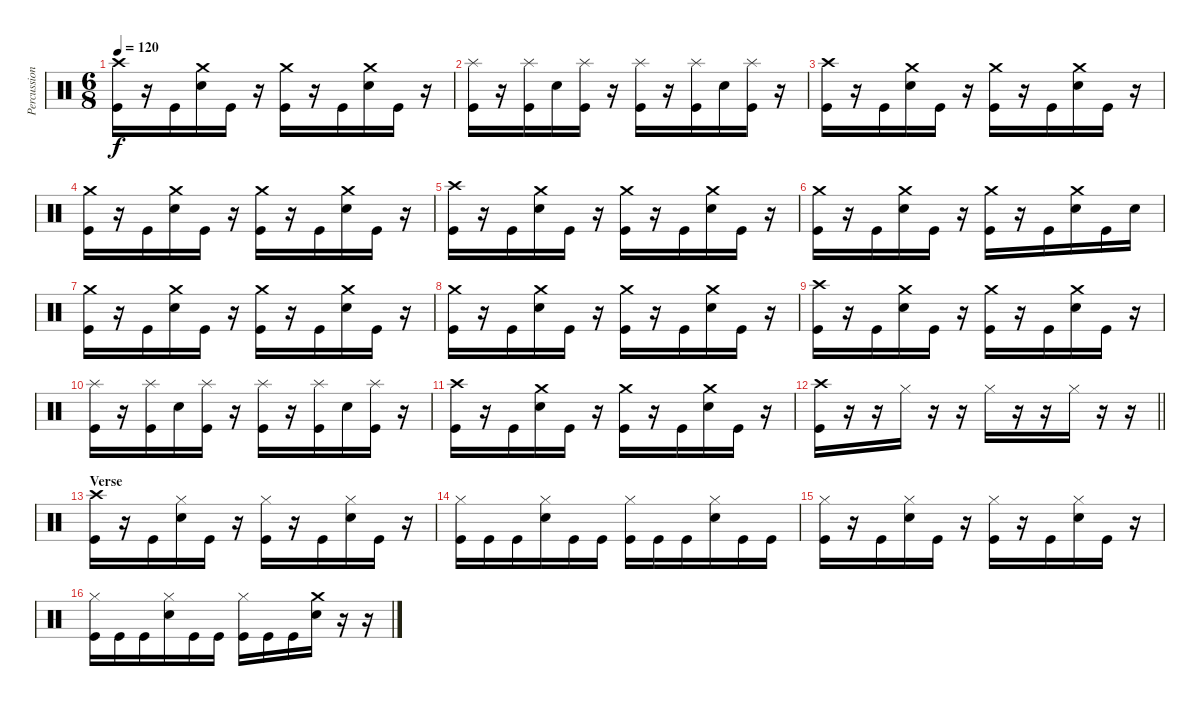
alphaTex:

\track ("Percussion" "Percussion") {instrument percussion}
\staff {score}
\articulation defaults
\ts (6 8)
\tempo 120
\clef neutral
\ks c
("Crash high (hit)" "Kick (hit)").16{dy f} r.16 "Kick (hit)".16 ("Crash medium (hit)" "Snare (hit) 2").16 "Kick (hit)".16 r.16 ("Crash medium (hit)" "Kick (hit)").16 r.16 "Kick (hit)".16 ("Crash medium (hit)" "Snare (hit) 2").16 "Kick (hit)".16 r.16 |
("Splash (hit)" "Kick (hit)").16 r.16 ("Splash (hit)" "Kick (hit)").16 "Snare (hit) 2".16 ("Splash (hit)" "Kick (hit)").16 r.16 ("Splash (hit)" "Kick (hit)").16 r.16 ("Splash (hit)" "Kick (hit)").16 "Snare (hit) 2".16 ("Splash (hit)" "Kick (hit)").16 r.16 |
("Crash high (hit)" "Kick (hit)").16 r.16 "Kick (hit)".16 ("Crash medium (hit)" "Snare (hit) 2").16 "Kick (hit)".16 r.16 ("Crash medium (hit)" "Kick (hit)").16 r.16 "Kick (hit)".16 ("Crash medium (hit)" "Snare (hit) 2").16 "Kick (hit)".16 r.16 |
("Crash medium (hit)" "Kick (hit)").16 r.16 "Kick (hit)".16 ("Crash medium (hit)" "Snare (hit) 2").16 "Kick (hit)".16 r.16 ("Crash medium (hit)" "Kick (hit)").16 r.16 "Kick (hit)".16 ("Crash medium (hit)" "Snare (hit) 2").16 "Kick (hit)".16 r.16 |
("Crash high (hit)" "Kick (hit)").16 r.16 "Kick (hit)".16 ("Crash medium (hit)" "Snare (hit) 2").16 "Kick (hit)".16 r.16 ("Crash medium (hit)" "Kick (hit)").16 r.16 "Kick (hit)".16 ("Crash medium (hit)" "Snare (hit) 2").16 "Kick (hit)".16 r.16 |
("Crash medium (hit)" "Kick (hit)").16 r.16 "Kick (hit)".16 ("Crash medium (hit)" "Snare (hit) 2").16 "Kick (hit)".16 r.16 ("Crash medium (hit)" "Kick (hit)").16 r.16 "Kick (hit)".16 ("Crash medium (hit)" "Snare (hit) 2").16 "Kick (hit)".16 "Snare (hit) 2".16 |
("Crash medium (hit)" "Kick (hit)").16 r.16 "Kick (hit)".16 ("Crash medium (hit)" "Snare (hit) 2").16 "Kick (hit)".16 r.16 ("Crash medium (hit)" "Kick (hit)").16 r.16 "Kick (hit)".16 ("Crash medium (hit)" "Snare (hit) 2").16 "Kick (hit)".16 r.16 |
("Crash medium (hit)" "Kick (hit)").16 r.16 "Kick (hit)".16 ("Crash medium (hit)" "Snare (hit) 2").16 "Kick (hit)".16 r.16 ("Crash medium (hit)" "Kick (hit)").16 r.16 "Kick (hit)".16 ("Crash medium (hit)" "Snare (hit) 2").16 "Kick (hit)".16 r.16 |
("Crash high (hit)" "Kick (hit)").16 r.16 "Kick (hit)".16 ("Crash medium (hit)" "Snare (hit) 2").16 "Kick (hit)".16 r.16 ("Crash medium (hit)" "Kick (hit)").16 r.16 "Kick (hit)".16 ("Crash medium (hit)" "Snare (hit) 2").16 "Kick (hit)".16 r.16 |
("Splash (hit)" "Kick (hit)").16 r.16 ("Splash (hit)" "Kick (hit)").16 "Snare (hit) 2".16 ("Splash (hit)" "Kick (hit)").16 r.16 ("Splash (hit)" "Kick (hit)").16 r.16 ("Splash (hit)" "Kick (hit)").16 "Snare (hit) 2".16 ("Splash (hit)" "Kick (hit)").16 r.16 |
("Crash high (hit)" "Kick (hit)").16 r.16 "Kick (hit)".16 ("Crash medium (hit)" "Snare (hit) 2").16 "Kick (hit)".16 r.16 ("Crash medium (hit)" "Kick (hit)").16 r.16 "Kick (hit)".16 ("Crash medium (hit)" "Snare (hit) 2").16 "Kick (hit)".16 r.16 |
\barLineRight lightlight
("Crash high (hit)" "Kick (hit)").16 r.16 r.16 "Hi-Hat (closed)".16 r.16 r.16 "Hi-Hat (closed)".16 r.16 r.16 "Hi-Hat (closed)".16 r.16 r.16 |
\section ("" "Verse")
("Crash high (hit)" "Kick (hit)").16 r.16 "Kick (hit)".16 ("Hi-Hat (closed)" "Snare (hit) 2").16 "Kick (hit)".16 r.16 ("Hi-Hat (closed)" "Kick (hit)").16 r.16 "Kick (hit)".16 ("Hi-Hat (closed)" "Snare (hit) 2").16 "Kick (hit)".16 r.16 |
("Hi-Hat (closed)" "Kick (hit)").16 "Kick (hit)".16 "Kick (hit)".16 ("Hi-Hat (closed)" "Snare (hit) 2").16 "Kick (hit)".16 "Kick (hit)".16 ("Hi-Hat (closed)" "Kick (hit)").16 "Kick (hit)".16 "Kick (hit)".16 ("Hi-Hat (closed)" "Snare (hit) 2").16 "Kick (hit)".16 "Kick (hit)".16 |
("Hi-Hat (closed)" "Kick (hit)").16 r.16 "Kick (hit)".16 ("Hi-Hat (closed)" "Snare (hit) 2").16 "Kick (hit)".16 r.16 ("Hi-Hat (closed)" "Kick (hit)").16 r.16 "Kick (hit)".16 ("Hi-Hat (closed)" "Snare (hit) 2").16 "Kick (hit)".16 r.16 |
("Hi-Hat (closed)" "Kick (hit)").16 "Kick (hit)".16 "Kick (hit)".16 ("Hi-Hat (closed)" "Snare (hit) 2").16 "Kick (hit)".16 "Kick (hit)".16 ("Hi-Hat (closed)" "Kick (hit)").16 "Kick (hit)".16 "Kick (hit)".16 ("Crash medium (hit)" "Snare (hit) 2").16 r.16 r.16
